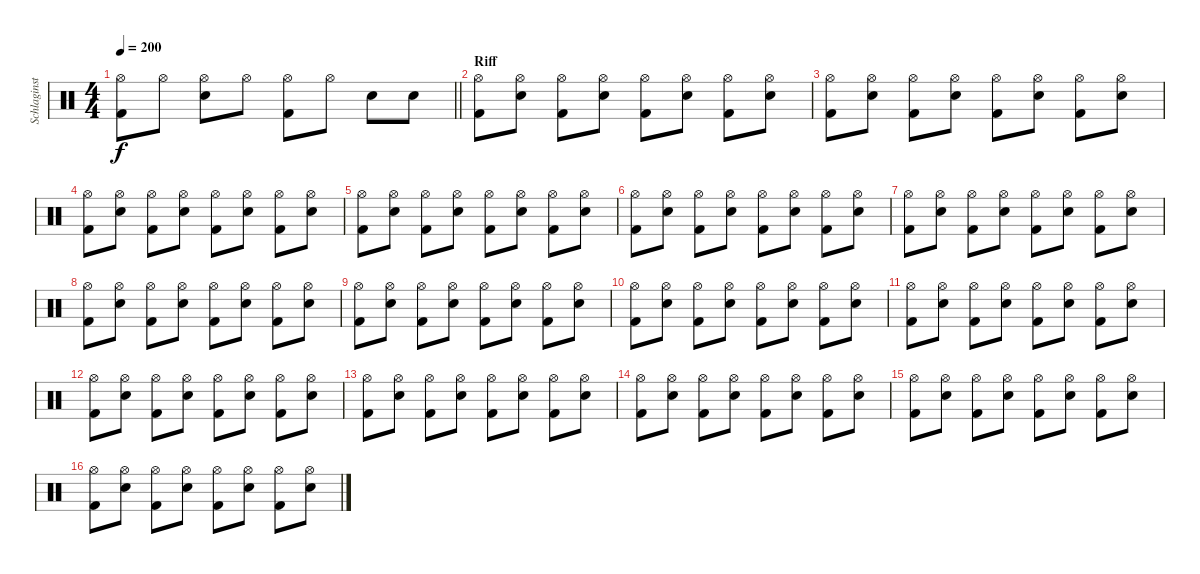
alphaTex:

\track ("Schlaginstrumente - Auswahl" "Schlaginst") {instrument percussion}
\staff {score}
\articulation defaults
\ts (4 4)
\tempo 200
\clef neutral
\barLineRight lightlight
\ks c
("Hi-Hat (open)" "Kick (hit) 2").8{dy f} "Hi-Hat (open)".8 ("Hi-Hat (open)" "Electric Snare (hit)").8 "Hi-Hat (open)".8 ("Hi-Hat (open)" "Kick (hit) 2").8 "Hi-Hat (open)".8 "Electric Snare (hit)".8 "Electric Snare (hit)".8 |
\section ("" "Riff")
("Hi-Hat (open)" "Kick (hit) 2").8 ("Hi-Hat (open)" "Electric Snare (hit)").8 ("Hi-Hat (open)" "Kick (hit) 2").8 ("Hi-Hat (open)" "Electric Snare (hit)").8 ("Hi-Hat (open)" "Kick (hit) 2").8 ("Hi-Hat (open)" "Electric Snare (hit)").8 ("Hi-Hat (open)" "Kick (hit) 2").8 ("Hi-Hat (open)" "Electric Snare (hit)").8 |
("Hi-Hat (open)" "Kick (hit) 2").8 ("Hi-Hat (open)" "Electric Snare (hit)").8 ("Hi-Hat (open)" "Kick (hit) 2").8 ("Hi-Hat (open)" "Electric Snare (hit)").8 ("Hi-Hat (open)" "Kick (hit) 2").8 ("Hi-Hat (open)" "Electric Snare (hit)").8 ("Hi-Hat (open)" "Kick (hit) 2").8 ("Hi-Hat (open)" "Electric Snare (hit)").8 |
("Hi-Hat (open)" "Kick (hit) 2").8 ("Hi-Hat (open)" "Electric Snare (hit)").8 ("Hi-Hat (open)" "Kick (hit) 2").8 ("Hi-Hat (open)" "Electric Snare (hit)").8 ("Hi-Hat (open)" "Kick (hit) 2").8 ("Hi-Hat (open)" "Electric Snare (hit)").8 ("Hi-Hat (open)" "Kick (hit) 2").8 ("Hi-Hat (open)" "Electric Snare (hit)").8 |
("Hi-Hat (open)" "Kick (hit) 2").8 ("Hi-Hat (open)" "Electric Snare (hit)").8 ("Hi-Hat (open)" "Kick (hit) 2").8 ("Hi-Hat (open)" "Electric Snare (hit)").8 ("Hi-Hat (open)" "Kick (hit) 2").8 ("Hi-Hat (open)" "Electric Snare (hit)").8 ("Hi-Hat (open)" "Kick (hit) 2").8 ("Hi-Hat (open)" "Electric Snare (hit)").8 |
("Hi-Hat (open)" "Kick (hit) 2").8 ("Hi-Hat (open)" "Electric Snare (hit)").8 ("Hi-Hat (open)" "Kick (hit) 2").8 ("Hi-Hat (open)" "Electric Snare (hit)").8 ("Hi-Hat (open)" "Kick (hit) 2").8 ("Hi-Hat (open)" "Electric Snare (hit)").8 ("Hi-Hat (open)" "Kick (hit) 2").8 ("Hi-Hat (open)" "Electric Snare (hit)").8 |
("Hi-Hat (open)" "Kick (hit) 2").8 ("Hi-Hat (open)" "Electric Snare (hit)").8 ("Hi-Hat (open)" "Kick (hit) 2").8 ("Hi-Hat (open)" "Electric Snare (hit)").8 ("Hi-Hat (open)" "Kick (hit) 2").8 ("Hi-Hat (open)" "Electric Snare (hit)").8 ("Hi-Hat (open)" "Kick (hit) 2").8 ("Hi-Hat (open)" "Electric Snare (hit)").8 |
("Hi-Hat (open)" "Kick (hit) 2").8 ("Hi-Hat (open)" "Electric Snare (hit)").8 ("Hi-Hat (open)" "Kick (hit) 2").8 ("Hi-Hat (open)" "Electric Snare (hit)").8 ("Hi-Hat (open)" "Kick (hit) 2").8 ("Hi-Hat (open)" "Electric Snare (hit)").8 ("Hi-Hat (open)" "Kick (hit) 2").8 ("Hi-Hat (open)" "Electric Snare (hit)").8 |
("Hi-Hat (open)" "Kick (hit) 2").8 ("Hi-Hat (open)" "Electric Snare (hit)").8 ("Hi-Hat (open)" "Kick (hit) 2").8 ("Hi-Hat (open)" "Electric Snare (hit)").8 ("Hi-Hat (open)" "Kick (hit) 2").8 ("Hi-Hat (open)" "Electric Snare (hit)").8 ("Hi-Hat (open)" "Kick (hit) 2").8 ("Hi-Hat (open)" "Electric Snare (hit)").8 |
("Hi-Hat (open)" "Kick (hit) 2").8 ("Hi-Hat (open)" "Electric Snare (hit)").8 ("Hi-Hat (open)" "Kick (hit) 2").8 ("Hi-Hat (open)" "Electric Snare (hit)").8 ("Hi-Hat (open)" "Kick (hit) 2").8 ("Hi-Hat (open)" "Electric Snare (hit)").8 ("Hi-Hat (open)" "Kick (hit) 2").8 ("Hi-Hat (open)" "Electric Snare (hit)").8 |
("Hi-Hat (open)" "Kick (hit) 2").8 ("Hi-Hat (open)" "Electric Snare (hit)").8 ("Hi-Hat (open)" "Kick (hit) 2").8 ("Hi-Hat (open)" "Electric Snare (hit)").8 ("Hi-Hat (open)" "Kick (hit) 2").8 ("Hi-Hat (open)" "Electric Snare (hit)").8 ("Hi-Hat (open)" "Kick (hit) 2").8 ("Hi-Hat (open)" "Electric Snare (hit)").8 |
("Hi-Hat (open)" "Kick (hit) 2").8 ("Hi-Hat (open)" "Electric Snare (hit)").8 ("Hi-Hat (open)" "Kick (hit) 2").8 ("Hi-Hat (open)" "Electric Snare (hit)").8 ("Hi-Hat (open)" "Kick (hit) 2").8 ("Hi-Hat (open)" "Electric Snare (hit)").8 ("Hi-Hat (open)" "Kick (hit) 2").8 ("Hi-Hat (open)" "Electric Snare (hit)").8 |
("Hi-Hat (open)" "Kick (hit) 2").8 ("Hi-Hat (open)" "Electric Snare (hit)").8 ("Hi-Hat (open)" "Kick (hit) 2").8 ("Hi-Hat (open)" "Electric Snare (hit)").8 ("Hi-Hat (open)" "Kick (hit) 2").8 ("Hi-Hat (open)" "Electric Snare (hit)").8 ("Hi-Hat (open)" "Kick (hit) 2").8 ("Hi-Hat (open)" "Electric Snare (hit)").8 |
("Hi-Hat (open)" "Kick (hit) 2").8 ("Hi-Hat (open)" "Electric Snare (hit)").8 ("Hi-Hat (open)" "Kick (hit) 2").8 ("Hi-Hat (open)" "Electric Snare (hit)").8 ("Hi-Hat (open)" "Kick (hit) 2").8 ("Hi-Hat (open)" "Electric Snare (hit)").8 ("Hi-Hat (open)" "Kick (hit) 2").8 ("Hi-Hat (open)" "Electric Snare (hit)").8 |
("Hi-Hat (open)" "Kick (hit) 2").8 ("Hi-Hat (open)" "Electric Snare (hit)").8 ("Hi-Hat (open)" "Kick (hit) 2").8 ("Hi-Hat (open)" "Electric Snare (hit)").8 ("Hi-Hat (open)" "Kick (hit) 2").8 ("Hi-Hat (open)" "Electric Snare (hit)").8 ("Hi-Hat (open)" "Kick (hit) 2").8 ("Hi-Hat (open)" "Electric Snare (hit)").8 |
("Hi-Hat (open)" "Kick (hit) 2").8 ("Hi-Hat (open)" "Electric Snare (hit)").8 ("Hi-Hat (open)" "Kick (hit) 2").8 ("Hi-Hat (open)" "Electric Snare (hit)").8 ("Hi-Hat (open)" "Kick (hit) 2").8 ("Hi-Hat (open)" "Electric Snare (hit)").8 ("Hi-Hat (open)" "Kick (hit) 2").8 ("Hi-Hat (open)" "Electric Snare (hit)").8
